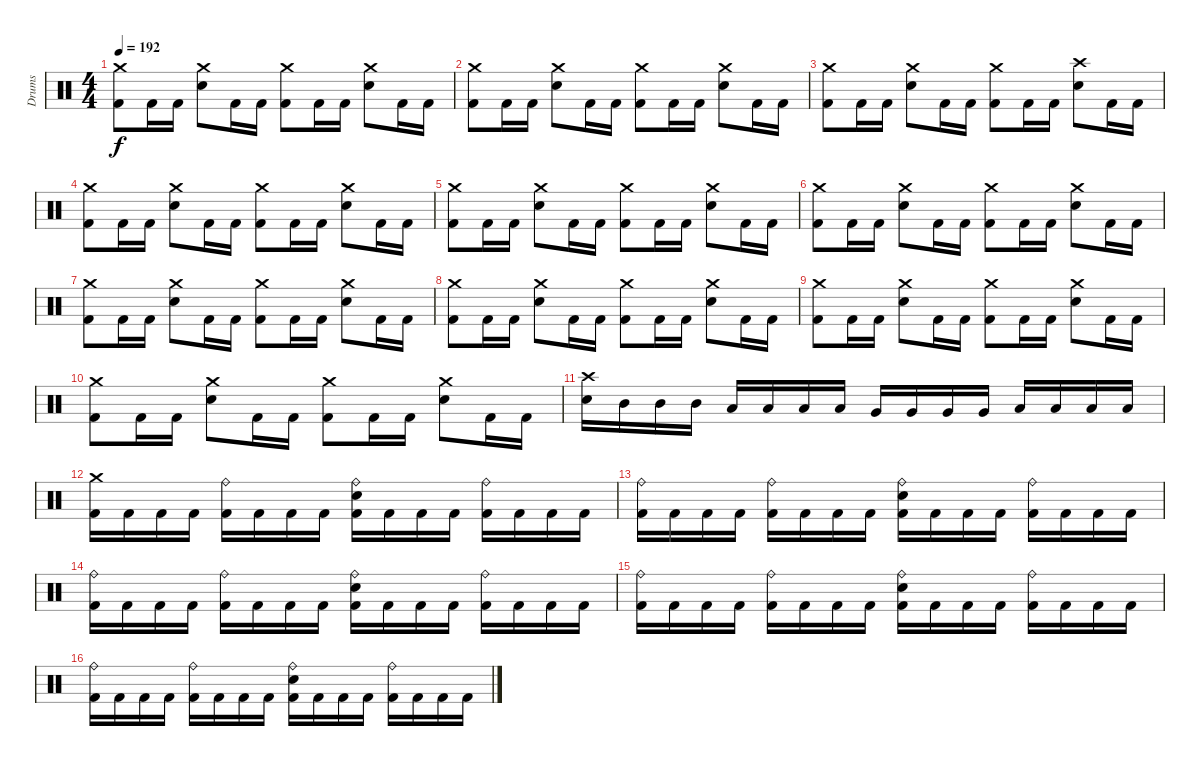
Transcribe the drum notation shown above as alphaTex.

\track ("Drums" "Drums") {instrument percussion}
\staff {score}
\articulation defaults
\ts (4 4)
\tempo 192
\clef neutral
\ks c
("Crash medium (hit)" "Kick (hit) 2").8{dy f} "Kick (hit) 2".16 "Kick (hit) 2".16 ("Crash medium (hit)" "Electric Snare (hit)").8 "Kick (hit) 2".16 "Kick (hit) 2".16 ("Crash medium (hit)" "Kick (hit) 2").8 "Kick (hit) 2".16 "Kick (hit) 2".16 ("Crash medium (hit)" "Electric Snare (hit)").8 "Kick (hit) 2".16 "Kick (hit) 2".16 |
("Crash medium (hit)" "Kick (hit) 2").8 "Kick (hit) 2".16 "Kick (hit) 2".16 ("Crash medium (hit)" "Electric Snare (hit)").8 "Kick (hit) 2".16 "Kick (hit) 2".16 ("Crash medium (hit)" "Kick (hit) 2").8 "Kick (hit) 2".16 "Kick (hit) 2".16 ("Crash medium (hit)" "Electric Snare (hit)").8 "Kick (hit) 2".16 "Kick (hit) 2".16 |
("Crash medium (hit)" "Kick (hit) 2").8 "Kick (hit) 2".16 "Kick (hit) 2".16 ("Crash medium (hit)" "Electric Snare (hit)").8 "Kick (hit) 2".16 "Kick (hit) 2".16 ("Crash medium (hit)" "Kick (hit) 2").8 "Kick (hit) 2".16 "Kick (hit) 2".16 ("Crash high (hit)" "Electric Snare (hit)").8 "Kick (hit) 2".16 "Kick (hit) 2".16 |
("Crash medium (hit)" "Kick (hit) 2").8 "Kick (hit) 2".16 "Kick (hit) 2".16 ("Crash medium (hit)" "Electric Snare (hit)").8 "Kick (hit) 2".16 "Kick (hit) 2".16 ("Crash medium (hit)" "Kick (hit) 2").8 "Kick (hit) 2".16 "Kick (hit) 2".16 ("Crash medium (hit)" "Electric Snare (hit)").8 "Kick (hit) 2".16 "Kick (hit) 2".16 |
("Crash medium (hit)" "Kick (hit) 2").8 "Kick (hit) 2".16 "Kick (hit) 2".16 ("Crash medium (hit)" "Electric Snare (hit)").8 "Kick (hit) 2".16 "Kick (hit) 2".16 ("Crash medium (hit)" "Kick (hit) 2").8 "Kick (hit) 2".16 "Kick (hit) 2".16 ("Crash medium (hit)" "Electric Snare (hit)").8 "Kick (hit) 2".16 "Kick (hit) 2".16 |
("Crash medium (hit)" "Kick (hit) 2").8 "Kick (hit) 2".16 "Kick (hit) 2".16 ("Crash medium (hit)" "Electric Snare (hit)").8 "Kick (hit) 2".16 "Kick (hit) 2".16 ("Crash medium (hit)" "Kick (hit) 2").8 "Kick (hit) 2".16 "Kick (hit) 2".16 ("Crash medium (hit)" "Electric Snare (hit)").8 "Kick (hit) 2".16 "Kick (hit) 2".16 |
("Crash medium (hit)" "Kick (hit) 2").8 "Kick (hit) 2".16 "Kick (hit) 2".16 ("Crash medium (hit)" "Electric Snare (hit)").8 "Kick (hit) 2".16 "Kick (hit) 2".16 ("Crash medium (hit)" "Kick (hit) 2").8 "Kick (hit) 2".16 "Kick (hit) 2".16 ("Crash medium (hit)" "Electric Snare (hit)").8 "Kick (hit) 2".16 "Kick (hit) 2".16 |
("Crash medium (hit)" "Kick (hit) 2").8 "Kick (hit) 2".16 "Kick (hit) 2".16 ("Crash medium (hit)" "Electric Snare (hit)").8 "Kick (hit) 2".16 "Kick (hit) 2".16 ("Crash medium (hit)" "Kick (hit) 2").8 "Kick (hit) 2".16 "Kick (hit) 2".16 ("Crash medium (hit)" "Electric Snare (hit)").8 "Kick (hit) 2".16 "Kick (hit) 2".16 |
("Crash medium (hit)" "Kick (hit) 2").8 "Kick (hit) 2".16 "Kick (hit) 2".16 ("Crash medium (hit)" "Electric Snare (hit)").8 "Kick (hit) 2".16 "Kick (hit) 2".16 ("Crash medium (hit)" "Kick (hit) 2").8 "Kick (hit) 2".16 "Kick (hit) 2".16 ("Crash medium (hit)" "Electric Snare (hit)").8 "Kick (hit) 2".16 "Kick (hit) 2".16 |
("Crash medium (hit)" "Kick (hit) 2").8 "Kick (hit) 2".16 "Kick (hit) 2".16 ("Crash medium (hit)" "Electric Snare (hit)").8 "Kick (hit) 2".16 "Kick (hit) 2".16 ("Crash medium (hit)" "Kick (hit) 2").8 "Kick (hit) 2".16 "Kick (hit) 2".16 ("Crash medium (hit)" "Electric Snare (hit)").8 "Kick (hit) 2".16 "Kick (hit) 2".16 |
("Crash high (hit)" "Electric Snare (hit)").16 "Mid Tom (hit)".16 "Mid Tom (hit)".16 "Mid Tom (hit)".16 "Low Tom (hit)".16 "Low Tom (hit)".16 "Low Tom (hit)".16 "Low Tom (hit)".16 "Very Low Tom (hit)".16 "Very Low Tom (hit)".16 "Very Low Tom (hit)".16 "Very Low Tom (hit)".16 "Low Floor Tom (hit)".16 "Low Floor Tom (hit)".16 "Low Floor Tom (hit)".16 "Low Floor Tom (hit)".16 |
("Crash medium (hit)" "Kick (hit) 2").16 "Kick (hit) 2".16 "Kick (hit) 2".16 "Kick (hit) 2".16 ("Ride (bell)" "Kick (hit) 2").16 "Kick (hit) 2".16 "Kick (hit) 2".16 "Kick (hit) 2".16 ("Ride (bell)" "Electric Snare (hit)" "Kick (hit) 2").16 "Kick (hit) 2".16 "Kick (hit) 2".16 "Kick (hit) 2".16 ("Ride (bell)" "Kick (hit) 2").16 "Kick (hit) 2".16 "Kick (hit) 2".16 "Kick (hit) 2".16 |
("Ride (bell)" "Kick (hit) 2").16 "Kick (hit) 2".16 "Kick (hit) 2".16 "Kick (hit) 2".16 ("Ride (bell)" "Kick (hit) 2").16 "Kick (hit) 2".16 "Kick (hit) 2".16 "Kick (hit) 2".16 ("Ride (bell)" "Electric Snare (hit)" "Kick (hit) 2").16 "Kick (hit) 2".16 "Kick (hit) 2".16 "Kick (hit) 2".16 ("Ride (bell)" "Kick (hit) 2").16 "Kick (hit) 2".16 "Kick (hit) 2".16 "Kick (hit) 2".16 |
("Ride (bell)" "Kick (hit) 2").16 "Kick (hit) 2".16 "Kick (hit) 2".16 "Kick (hit) 2".16 ("Ride (bell)" "Kick (hit) 2").16 "Kick (hit) 2".16 "Kick (hit) 2".16 "Kick (hit) 2".16 ("Ride (bell)" "Electric Snare (hit)" "Kick (hit) 2").16 "Kick (hit) 2".16 "Kick (hit) 2".16 "Kick (hit) 2".16 ("Ride (bell)" "Kick (hit) 2").16 "Kick (hit) 2".16 "Kick (hit) 2".16 "Kick (hit) 2".16 |
("Ride (bell)" "Kick (hit) 2").16 "Kick (hit) 2".16 "Kick (hit) 2".16 "Kick (hit) 2".16 ("Ride (bell)" "Kick (hit) 2").16 "Kick (hit) 2".16 "Kick (hit) 2".16 "Kick (hit) 2".16 ("Ride (bell)" "Electric Snare (hit)" "Kick (hit) 2").16 "Kick (hit) 2".16 "Kick (hit) 2".16 "Kick (hit) 2".16 ("Ride (bell)" "Kick (hit) 2").16 "Kick (hit) 2".16 "Kick (hit) 2".16 "Kick (hit) 2".16 |
("Ride (bell)" "Kick (hit) 2").16 "Kick (hit) 2".16 "Kick (hit) 2".16 "Kick (hit) 2".16 ("Ride (bell)" "Kick (hit) 2").16 "Kick (hit) 2".16 "Kick (hit) 2".16 "Kick (hit) 2".16 ("Ride (bell)" "Electric Snare (hit)" "Kick (hit) 2").16 "Kick (hit) 2".16 "Kick (hit) 2".16 "Kick (hit) 2".16 ("Ride (bell)" "Kick (hit) 2").16 "Kick (hit) 2".16 "Kick (hit) 2".16 "Kick (hit) 2".16
